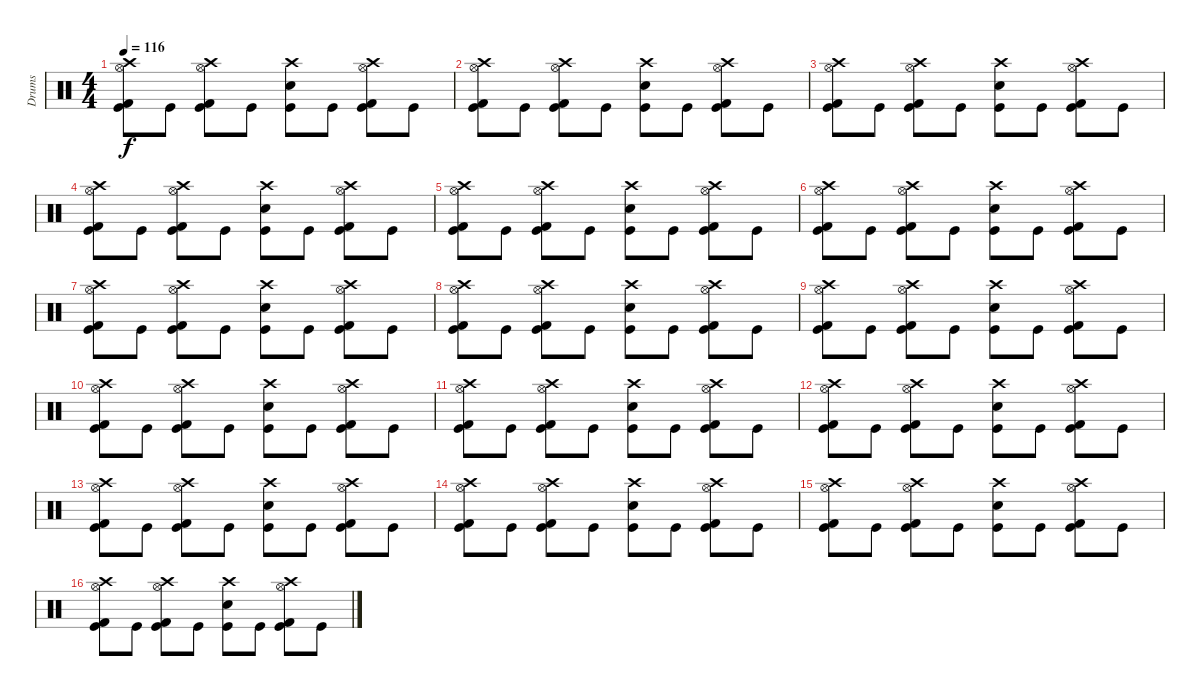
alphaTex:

\track ("Drums" "Drums") {instrument percussion}
\staff {score}
\articulation defaults
\ts (4 4)
\tempo 116
\clef neutral
\ks c
("Crash high (hit)" "Hi-Hat (open)" "Kick (hit) 2" "Kick (hit)").8{dy f} "Kick (hit)".8 ("Crash high (hit)" "Hi-Hat (open)" "Kick (hit) 2" "Kick (hit)").8 "Kick (hit)".8 ("Crash high (hit)" "Snare (hit) 2" "Kick (hit)").8 "Kick (hit)".8 ("Crash high (hit)" "Hi-Hat (open)" "Kick (hit) 2" "Kick (hit)").8 "Kick (hit)".8 |
("Crash high (hit)" "Hi-Hat (open)" "Kick (hit) 2" "Kick (hit)").8 "Kick (hit)".8 ("Crash high (hit)" "Hi-Hat (open)" "Kick (hit) 2" "Kick (hit)").8 "Kick (hit)".8 ("Crash high (hit)" "Snare (hit) 2" "Kick (hit)").8 "Kick (hit)".8 ("Crash high (hit)" "Hi-Hat (open)" "Kick (hit) 2" "Kick (hit)").8 "Kick (hit)".8 |
("Crash high (hit)" "Hi-Hat (open)" "Kick (hit) 2" "Kick (hit)").8 "Kick (hit)".8 ("Crash high (hit)" "Hi-Hat (open)" "Kick (hit) 2" "Kick (hit)").8 "Kick (hit)".8 ("Crash high (hit)" "Snare (hit) 2" "Kick (hit)").8 "Kick (hit)".8 ("Crash high (hit)" "Hi-Hat (open)" "Kick (hit) 2" "Kick (hit)").8 "Kick (hit)".8 |
("Crash high (hit)" "Hi-Hat (open)" "Kick (hit) 2" "Kick (hit)").8 "Kick (hit)".8 ("Crash high (hit)" "Hi-Hat (open)" "Kick (hit) 2" "Kick (hit)").8 "Kick (hit)".8 ("Crash high (hit)" "Snare (hit) 2" "Kick (hit)").8 "Kick (hit)".8 ("Crash high (hit)" "Hi-Hat (open)" "Kick (hit) 2" "Kick (hit)").8 "Kick (hit)".8 |
("Crash high (hit)" "Hi-Hat (open)" "Kick (hit) 2" "Kick (hit)").8 "Kick (hit)".8 ("Crash high (hit)" "Hi-Hat (open)" "Kick (hit) 2" "Kick (hit)").8 "Kick (hit)".8 ("Crash high (hit)" "Snare (hit) 2" "Kick (hit)").8 "Kick (hit)".8 ("Crash high (hit)" "Hi-Hat (open)" "Kick (hit) 2" "Kick (hit)").8 "Kick (hit)".8 |
("Crash high (hit)" "Hi-Hat (open)" "Kick (hit) 2" "Kick (hit)").8 "Kick (hit)".8 ("Crash high (hit)" "Hi-Hat (open)" "Kick (hit) 2" "Kick (hit)").8 "Kick (hit)".8 ("Crash high (hit)" "Snare (hit) 2" "Kick (hit)").8 "Kick (hit)".8 ("Crash high (hit)" "Hi-Hat (open)" "Kick (hit) 2" "Kick (hit)").8 "Kick (hit)".8 |
("Crash high (hit)" "Hi-Hat (open)" "Kick (hit) 2" "Kick (hit)").8{volume 12} "Kick (hit)".8 ("Crash high (hit)" "Hi-Hat (open)" "Kick (hit) 2" "Kick (hit)").8 "Kick (hit)".8 ("Crash high (hit)" "Snare (hit) 2" "Kick (hit)").8 "Kick (hit)".8 ("Crash high (hit)" "Hi-Hat (open)" "Kick (hit) 2" "Kick (hit)").8 "Kick (hit)".8 |
("Crash high (hit)" "Hi-Hat (open)" "Kick (hit) 2" "Kick (hit)").8 "Kick (hit)".8 ("Crash high (hit)" "Hi-Hat (open)" "Kick (hit) 2" "Kick (hit)").8 "Kick (hit)".8 ("Crash high (hit)" "Snare (hit) 2" "Kick (hit)").8 "Kick (hit)".8 ("Crash high (hit)" "Hi-Hat (open)" "Kick (hit) 2" "Kick (hit)").8 "Kick (hit)".8 |
("Crash high (hit)" "Hi-Hat (open)" "Kick (hit) 2" "Kick (hit)").8{volume 9} "Kick (hit)".8 ("Crash high (hit)" "Hi-Hat (open)" "Kick (hit) 2" "Kick (hit)").8 "Kick (hit)".8 ("Crash high (hit)" "Snare (hit) 2" "Kick (hit)").8 "Kick (hit)".8 ("Crash high (hit)" "Hi-Hat (open)" "Kick (hit) 2" "Kick (hit)").8 "Kick (hit)".8 |
("Crash high (hit)" "Hi-Hat (open)" "Kick (hit) 2" "Kick (hit)").8 "Kick (hit)".8 ("Crash high (hit)" "Hi-Hat (open)" "Kick (hit) 2" "Kick (hit)").8 "Kick (hit)".8 ("Crash high (hit)" "Snare (hit) 2" "Kick (hit)").8 "Kick (hit)".8 ("Crash high (hit)" "Hi-Hat (open)" "Kick (hit) 2" "Kick (hit)").8 "Kick (hit)".8 |
("Crash high (hit)" "Hi-Hat (open)" "Kick (hit) 2" "Kick (hit)").8{volume 6} "Kick (hit)".8 ("Crash high (hit)" "Hi-Hat (open)" "Kick (hit) 2" "Kick (hit)").8 "Kick (hit)".8 ("Crash high (hit)" "Snare (hit) 2" "Kick (hit)").8 "Kick (hit)".8 ("Crash high (hit)" "Hi-Hat (open)" "Kick (hit) 2" "Kick (hit)").8 "Kick (hit)".8 |
("Crash high (hit)" "Hi-Hat (open)" "Kick (hit) 2" "Kick (hit)").8 "Kick (hit)".8 ("Crash high (hit)" "Hi-Hat (open)" "Kick (hit) 2" "Kick (hit)").8 "Kick (hit)".8 ("Crash high (hit)" "Snare (hit) 2" "Kick (hit)").8 "Kick (hit)".8 ("Crash high (hit)" "Hi-Hat (open)" "Kick (hit) 2" "Kick (hit)").8 "Kick (hit)".8 |
("Crash high (hit)" "Hi-Hat (open)" "Kick (hit) 2" "Kick (hit)").8{volume 3} "Kick (hit)".8 ("Crash high (hit)" "Hi-Hat (open)" "Kick (hit) 2" "Kick (hit)").8 "Kick (hit)".8 ("Crash high (hit)" "Snare (hit) 2" "Kick (hit)").8 "Kick (hit)".8 ("Crash high (hit)" "Hi-Hat (open)" "Kick (hit) 2" "Kick (hit)").8 "Kick (hit)".8 |
("Crash high (hit)" "Hi-Hat (open)" "Kick (hit) 2" "Kick (hit)").8 "Kick (hit)".8 ("Crash high (hit)" "Hi-Hat (open)" "Kick (hit) 2" "Kick (hit)").8 "Kick (hit)".8 ("Crash high (hit)" "Snare (hit) 2" "Kick (hit)").8 "Kick (hit)".8 ("Crash high (hit)" "Hi-Hat (open)" "Kick (hit) 2" "Kick (hit)").8 "Kick (hit)".8 |
("Crash high (hit)" "Hi-Hat (open)" "Kick (hit) 2" "Kick (hit)").8{volume 0} "Kick (hit)".8 ("Crash high (hit)" "Hi-Hat (open)" "Kick (hit) 2" "Kick (hit)").8 "Kick (hit)".8 ("Crash high (hit)" "Snare (hit) 2" "Kick (hit)").8 "Kick (hit)".8 ("Crash high (hit)" "Hi-Hat (open)" "Kick (hit) 2" "Kick (hit)").8 "Kick (hit)".8 |
("Crash high (hit)" "Hi-Hat (open)" "Kick (hit) 2" "Kick (hit)").8 "Kick (hit)".8 ("Crash high (hit)" "Hi-Hat (open)" "Kick (hit) 2" "Kick (hit)").8 "Kick (hit)".8 ("Crash high (hit)" "Snare (hit) 2" "Kick (hit)").8 "Kick (hit)".8 ("Crash high (hit)" "Hi-Hat (open)" "Kick (hit) 2" "Kick (hit)").8 "Kick (hit)".8
